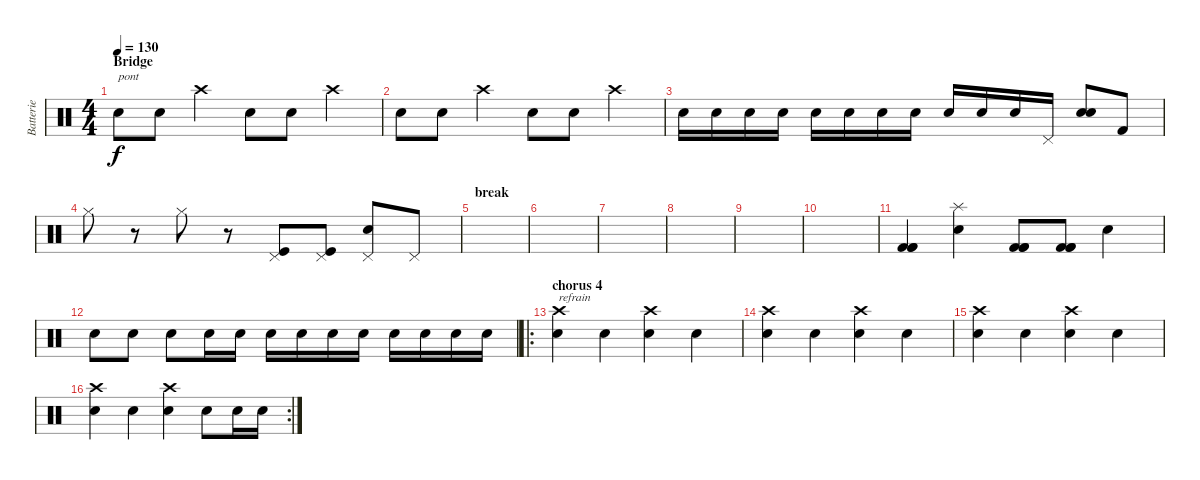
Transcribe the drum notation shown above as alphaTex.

\track ("Batterie" "Batterie") {instrument percussion}
\staff {score}
\articulation defaults
\ts (4 4)
\section ("" "Bridge ")
\tempo 130
\clef neutral
\ks c "Snare (hit) 2".8{txt "pont" dy f} "Snare (hit) 2".8 "Crash high (hit)".4 "Snare (hit) 2".8 "Snare (hit) 2".8 "Crash high (hit)".4
|
"Snare (hit) 2".8 "Snare (hit) 2".8 "Crash high (hit)".4 "Snare (hit) 2".8 "Snare (hit) 2".8 "Crash high (hit)".4 |
"Snare (hit) 2".16 "Snare (hit) 2".16 "Snare (hit) 2".16 "Snare (hit) 2".16 "Snare (hit) 2".16 "Snare (hit) 2".16 "Snare (hit) 2".16 "Snare (hit) 2".16 "Snare (hit) 2".16 "Snare (hit) 2".16 "Snare (hit) 2".16 "Pedal Hi-Hat (hit)".16 ("Electric Snare (hit)" "Snare (hit) 2").8 "Kick (hit) 2".8 |
"Hi-Hat (closed)".8 r.8 "Hi-Hat (closed)".8 r.8 ("Pedal Hi-Hat (hit)" "Kick (hit)").8 ("Pedal Hi-Hat (hit)" "Kick (hit)").8 ("Pedal Hi-Hat (hit)" "Snare (hit) 2").8 "Pedal Hi-Hat (hit)".8 |
\section ("" "break")
|
|
|
|
|
|
("Kick (hit) 2" "Kick (hit) 2" "Kick (hit) 2").4 ("Splash (hit)" "Electric Snare (hit)").4 ("Kick (hit) 2" "Kick (hit) 2" "Kick (hit) 2").8 ("Kick (hit) 2" "Kick (hit) 2" "Kick (hit) 2").8 "Electric Snare (hit)".4 |
"Electric Snare (hit)".8 "Electric Snare (hit)".8 "Electric Snare (hit)".8 "Electric Snare (hit)".16 "Electric Snare (hit)".16 "Electric Snare (hit)".16 "Electric Snare (hit)".16 "Electric Snare (hit)".16 "Electric Snare (hit)".16 "Electric Snare (hit)".16 "Electric Snare (hit)".16 "Electric Snare (hit)".16 "Electric Snare (hit)".16 |
\ro
\section ("" "chorus 4")
("Crash high (hit)" "Electric Snare (hit)").4{txt "refrain"} "Electric Snare (hit)".4 ("Crash high (hit)" "Electric Snare (hit)").4 "Electric Snare (hit)".4 |
("Crash high (hit)" "Electric Snare (hit)").4 "Electric Snare (hit)".4 ("Crash high (hit)" "Electric Snare (hit)").4 "Electric Snare (hit)".4 |
("Crash high (hit)" "Electric Snare (hit)").4 "Electric Snare (hit)".4 ("Crash high (hit)" "Electric Snare (hit)").4 "Electric Snare (hit)".4 |
\rc 2
("Crash high (hit)" "Electric Snare (hit)").4 "Electric Snare (hit)".4 ("Crash high (hit)" "Electric Snare (hit)").4 "Electric Snare (hit)".8 "Electric Snare (hit)".16 "Electric Snare (hit)".16
